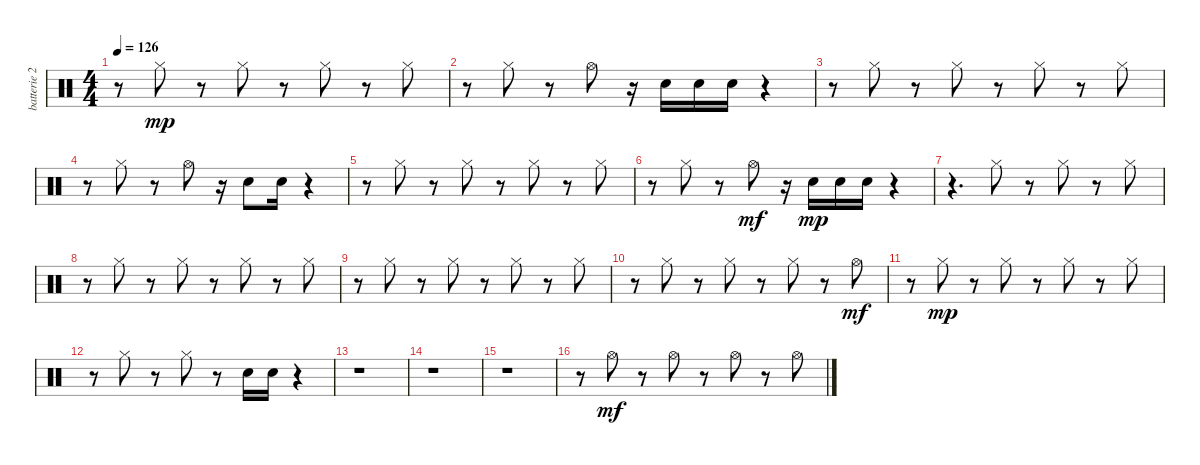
\track ("batterie 2" "batterie 2") {instrument percussion}
\staff {score}
\articulation defaults
\ts (4 4)
\tempo 126
\clef neutral
\ks c
r.8{dy mp} "Hi-Hat (closed)".8 r.8 "Hi-Hat (closed)".8 r.8 "Hi-Hat (closed)".8 r.8 "Hi-Hat (closed)".8 |
r.8 "Hi-Hat (closed)".8 r.8 "Hi-Hat (open)".8 r.16 "Electric Snare (hit)".16 "Electric Snare (hit)".16 "Electric Snare (hit)".16 r.4 |
r.8 "Hi-Hat (closed)".8 r.8 "Hi-Hat (closed)".8 r.8 "Hi-Hat (closed)".8 r.8 "Hi-Hat (closed)".8 |
r.8 "Hi-Hat (closed)".8 r.8 "Hi-Hat (open)".8 r.16 "Electric Snare (hit)".8 "Electric Snare (hit)".16 r.4 |
r.8 "Hi-Hat (closed)".8 r.8 "Hi-Hat (closed)".8 r.8 "Hi-Hat (closed)".8 r.8 "Hi-Hat (closed)".8 |
r.8 "Hi-Hat (closed)".8 r.8 "Hi-Hat (open)".8{dy mf} r.16 "Electric Snare (hit)".16{dy mp} "Electric Snare (hit)".16 "Electric Snare (hit)".16 r.4 |
r.4{d} "Hi-Hat (closed)".8 r.8 "Hi-Hat (closed)".8 r.8 "Hi-Hat (closed)".8 |
r.8 "Hi-Hat (closed)".8 r.8 "Hi-Hat (closed)".8 r.8 "Hi-Hat (closed)".8 r.8 "Hi-Hat (closed)".8 |
r.8 "Hi-Hat (closed)".8 r.8 "Hi-Hat (closed)".8 r.8 "Hi-Hat (closed)".8 r.8 "Hi-Hat (closed)".8 |
r.8 "Hi-Hat (closed)".8 r.8 "Hi-Hat (closed)".8 r.8 "Hi-Hat (closed)".8 r.8 "Hi-Hat (open)".8{dy mf} |
r.8 "Hi-Hat (closed)".8{dy mp} r.8 "Hi-Hat (closed)".8 r.8 "Hi-Hat (closed)".8 r.8 "Hi-Hat (closed)".8 |
r.8 "Hi-Hat (closed)".8 r.8 "Hi-Hat (closed)".8 r.8 "Electric Snare (hit)".16 "Electric Snare (hit)".16 r.4 |
r.1 |
r.1 |
r.1 |
r.8 "Hi-Hat (open)".8{dy mf} r.8 "Hi-Hat (open)".8 r.8 "Hi-Hat (open)".8 r.8 "Hi-Hat (open)".8
